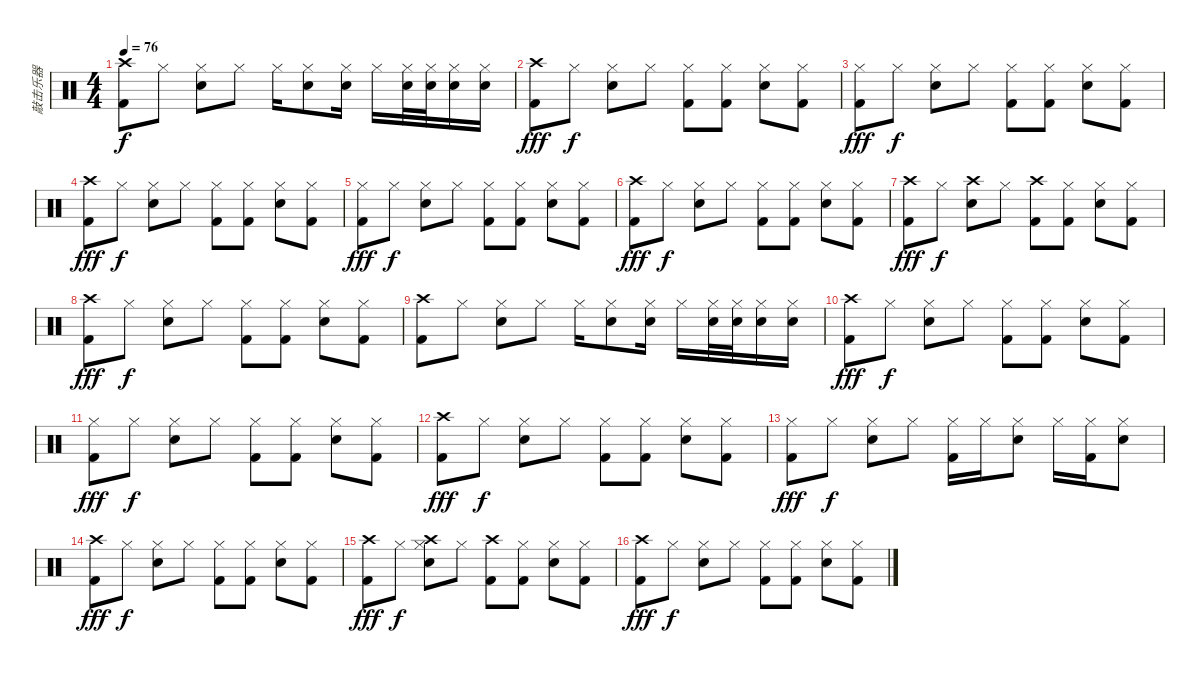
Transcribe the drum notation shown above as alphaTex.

\track ("敲击乐器" "敲击乐器") {instrument percussion}
\staff {score}
\articulation defaults
\ts (4 4)
\tempo 76
\clef neutral
\ks c
("Crash high (hit)" "Kick (hit) 2").8{dy f} "Hi-Hat (closed)".8 ("Hi-Hat (closed)" "Electric Snare (hit)").8 "Hi-Hat (closed)".8 "Hi-Hat (closed)".16 ("Hi-Hat (closed)" "Electric Snare (hit)").8 ("Hi-Hat (closed)" "Electric Snare (hit)").16 "Hi-Hat (closed)".16 ("Hi-Hat (closed)" "Electric Snare (hit)").32 ("Hi-Hat (closed)" "Electric Snare (hit)").32 ("Hi-Hat (closed)" "Electric Snare (hit)").16 ("Hi-Hat (closed)" "Electric Snare (hit)").16 |
("Crash high (hit)" "Kick (hit) 2").8{dy fff} "Hi-Hat (closed)".8{dy f} ("Hi-Hat (closed)" "Electric Snare (hit)").8 "Hi-Hat (closed)".8 ("Hi-Hat (closed)" "Kick (hit) 2").8 ("Hi-Hat (closed)" "Kick (hit) 2").8 ("Hi-Hat (closed)" "Electric Snare (hit)").8 ("Hi-Hat (closed)" "Kick (hit) 2").8 |
("Hi-Hat (closed)" "Kick (hit) 2").8{dy fff} "Hi-Hat (closed)".8{dy f} ("Hi-Hat (closed)" "Electric Snare (hit)").8 "Hi-Hat (closed)".8 ("Hi-Hat (closed)" "Kick (hit) 2").8 ("Hi-Hat (closed)" "Kick (hit) 2").8 ("Hi-Hat (closed)" "Electric Snare (hit)").8 ("Hi-Hat (closed)" "Kick (hit) 2").8 |
("Crash high (hit)" "Kick (hit) 2").8{dy fff} "Hi-Hat (closed)".8{dy f} ("Hi-Hat (closed)" "Electric Snare (hit)").8 "Hi-Hat (closed)".8 ("Hi-Hat (closed)" "Kick (hit) 2").8 ("Hi-Hat (closed)" "Kick (hit) 2").8 ("Hi-Hat (closed)" "Electric Snare (hit)").8 ("Hi-Hat (closed)" "Kick (hit) 2").8 |
("Hi-Hat (closed)" "Kick (hit) 2").8{dy fff} "Hi-Hat (closed)".8{dy f} ("Hi-Hat (closed)" "Electric Snare (hit)").8 "Hi-Hat (closed)".8 ("Hi-Hat (closed)" "Kick (hit) 2").8 ("Hi-Hat (closed)" "Kick (hit) 2").8 ("Hi-Hat (closed)" "Electric Snare (hit)").8 ("Hi-Hat (closed)" "Kick (hit) 2").8 |
("Crash high (hit)" "Kick (hit) 2").8{dy fff} "Hi-Hat (closed)".8{dy f} ("Hi-Hat (closed)" "Electric Snare (hit)").8 "Hi-Hat (closed)".8 ("Hi-Hat (closed)" "Kick (hit) 2").8 ("Hi-Hat (closed)" "Kick (hit) 2").8 ("Hi-Hat (closed)" "Electric Snare (hit)").8 ("Hi-Hat (closed)" "Kick (hit) 2").8 |
("Crash high (hit)" "Kick (hit) 2").8{dy fff} "Hi-Hat (closed)".8{dy f} ("Crash high (hit)" "Electric Snare (hit)").8 "Hi-Hat (closed)".8 ("Crash high (hit)" "Kick (hit) 2").8 ("Hi-Hat (closed)" "Kick (hit) 2").8 ("Hi-Hat (closed)" "Electric Snare (hit)").8 ("Hi-Hat (closed)" "Kick (hit) 2").8 |
("Crash high (hit)" "Kick (hit) 2").8{dy fff} "Hi-Hat (closed)".8{dy f} ("Hi-Hat (closed)" "Electric Snare (hit)").8 "Hi-Hat (closed)".8 ("Hi-Hat (closed)" "Kick (hit) 2").8 ("Hi-Hat (closed)" "Kick (hit) 2").8 ("Hi-Hat (closed)" "Electric Snare (hit)").8 ("Hi-Hat (closed)" "Kick (hit) 2").8 |
("Crash high (hit)" "Kick (hit) 2").8 "Hi-Hat (closed)".8 ("Hi-Hat (closed)" "Electric Snare (hit)").8 "Hi-Hat (closed)".8 "Hi-Hat (closed)".16 ("Hi-Hat (closed)" "Electric Snare (hit)").8 ("Hi-Hat (closed)" "Electric Snare (hit)").16 "Hi-Hat (closed)".16 ("Hi-Hat (closed)" "Electric Snare (hit)").32 ("Hi-Hat (closed)" "Electric Snare (hit)").32 ("Hi-Hat (closed)" "Electric Snare (hit)").16 ("Hi-Hat (closed)" "Electric Snare (hit)").16 |
("Crash high (hit)" "Kick (hit) 2").8{dy fff} "Hi-Hat (closed)".8{dy f} ("Hi-Hat (closed)" "Electric Snare (hit)").8 "Hi-Hat (closed)".8 ("Hi-Hat (closed)" "Kick (hit) 2").8 ("Hi-Hat (closed)" "Kick (hit) 2").8 ("Hi-Hat (closed)" "Electric Snare (hit)").8 ("Hi-Hat (closed)" "Kick (hit) 2").8 |
("Hi-Hat (closed)" "Kick (hit) 2").8{dy fff} "Hi-Hat (closed)".8{dy f} ("Hi-Hat (closed)" "Electric Snare (hit)").8 "Hi-Hat (closed)".8 ("Hi-Hat (closed)" "Kick (hit) 2").8 ("Hi-Hat (closed)" "Kick (hit) 2").8 ("Hi-Hat (closed)" "Electric Snare (hit)").8 ("Hi-Hat (closed)" "Kick (hit) 2").8 |
("Crash high (hit)" "Kick (hit) 2").8{dy fff} "Hi-Hat (closed)".8{dy f} ("Hi-Hat (closed)" "Electric Snare (hit)").8 "Hi-Hat (closed)".8 ("Hi-Hat (closed)" "Kick (hit) 2").8 ("Hi-Hat (closed)" "Kick (hit) 2").8 ("Hi-Hat (closed)" "Electric Snare (hit)").8 ("Hi-Hat (closed)" "Kick (hit) 2").8 |
("Hi-Hat (closed)" "Kick (hit) 2").8{dy fff} "Hi-Hat (closed)".8{dy f} ("Hi-Hat (closed)" "Electric Snare (hit)").8 "Hi-Hat (closed)".8 ("Hi-Hat (closed)" "Kick (hit) 2").16 "Hi-Hat (closed)".16 ("Hi-Hat (closed)" "Electric Snare (hit)").8 "Hi-Hat (closed)".16 ("Hi-Hat (closed)" "Kick (hit) 2").16 ("Hi-Hat (closed)" "Electric Snare (hit)").8 |
("Crash high (hit)" "Kick (hit) 2").8{dy fff} "Hi-Hat (closed)".8{dy f} ("Hi-Hat (closed)" "Electric Snare (hit)").8 "Hi-Hat (closed)".8 ("Hi-Hat (closed)" "Kick (hit) 2").8 ("Hi-Hat (closed)" "Kick (hit) 2").8 ("Hi-Hat (closed)" "Electric Snare (hit)").8 ("Hi-Hat (closed)" "Kick (hit) 2").8 |
("Crash high (hit)" "Kick (hit) 2").8{dy fff} "Hi-Hat (closed)".8{dy f} ("Hi-Hat (closed)" "Crash high (hit)" "Electric Snare (hit)").8 "Hi-Hat (closed)".8 ("Crash high (hit)" "Kick (hit) 2").8 ("Hi-Hat (closed)" "Kick (hit) 2").8 ("Hi-Hat (closed)" "Electric Snare (hit)").8 ("Hi-Hat (closed)" "Kick (hit) 2").8 |
("Crash high (hit)" "Kick (hit) 2").8{dy fff} "Hi-Hat (closed)".8{dy f} ("Hi-Hat (closed)" "Electric Snare (hit)").8 "Hi-Hat (closed)".8 ("Hi-Hat (closed)" "Kick (hit) 2").8 ("Hi-Hat (closed)" "Kick (hit) 2").8 ("Hi-Hat (closed)" "Electric Snare (hit)").8 ("Hi-Hat (closed)" "Kick (hit) 2").8
